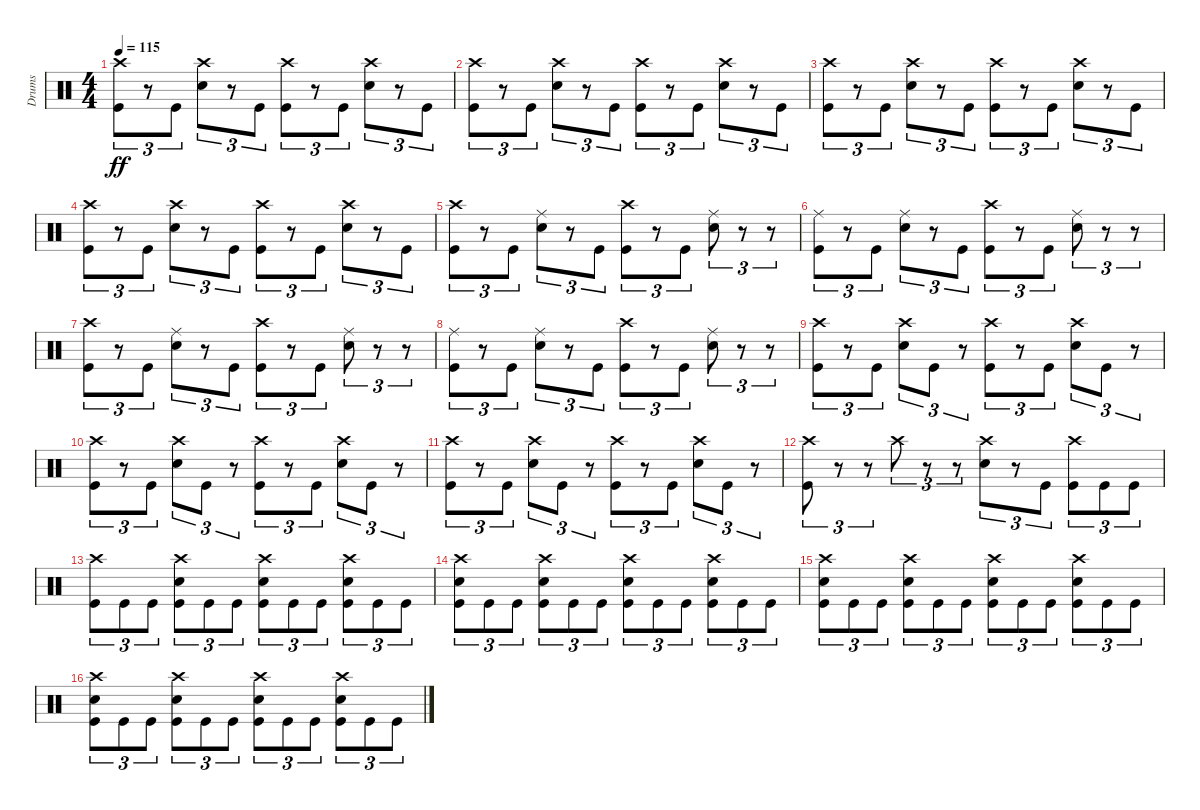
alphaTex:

\track ("Drums" "Drums") {instrument percussion}
\staff {score}
\articulation defaults
\ts (4 4)
\tempo 115
\clef neutral
\ks c
("Crash high (hit)" "Kick (hit)").8{tu (3 2) dy ff} r.8{tu (3 2)} "Kick (hit)".8{tu (3 2)} ("Crash high (hit)" "Snare (hit) 2").8{tu (3 2)} r.8{tu (3 2)} "Kick (hit)".8{tu (3 2)} ("Crash high (hit)" "Kick (hit)").8{tu (3 2)} r.8{tu (3 2)} "Kick (hit)".8{tu (3 2)} ("Crash high (hit)" "Snare (hit) 2").8{tu (3 2)} r.8{tu (3 2)} "Kick (hit)".8{tu (3 2)} |
("Crash high (hit)" "Kick (hit)").8{tu (3 2)} r.8{tu (3 2)} "Kick (hit)".8{tu (3 2)} ("Crash high (hit)" "Snare (hit) 2").8{tu (3 2)} r.8{tu (3 2)} "Kick (hit)".8{tu (3 2)} ("Crash high (hit)" "Kick (hit)").8{tu (3 2)} r.8{tu (3 2)} "Kick (hit)".8{tu (3 2)} ("Crash high (hit)" "Snare (hit) 2").8{tu (3 2)} r.8{tu (3 2)} "Kick (hit)".8{tu (3 2)} |
("Crash high (hit)" "Kick (hit)").8{tu (3 2)} r.8{tu (3 2)} "Kick (hit)".8{tu (3 2)} ("Crash high (hit)" "Snare (hit) 2").8{tu (3 2)} r.8{tu (3 2)} "Kick (hit)".8{tu (3 2)} ("Crash high (hit)" "Kick (hit)").8{tu (3 2)} r.8{tu (3 2)} "Kick (hit)".8{tu (3 2)} ("Crash high (hit)" "Snare (hit) 2").8{tu (3 2)} r.8{tu (3 2)} "Kick (hit)".8{tu (3 2)} |
("Crash high (hit)" "Kick (hit)").8{tu (3 2)} r.8{tu (3 2)} "Kick (hit)".8{tu (3 2)} ("Crash high (hit)" "Snare (hit) 2").8{tu (3 2)} r.8{tu (3 2)} "Kick (hit)".8{tu (3 2)} ("Crash high (hit)" "Kick (hit)").8{tu (3 2)} r.8{tu (3 2)} "Kick (hit)".8{tu (3 2)} ("Crash high (hit)" "Snare (hit) 2").8{tu (3 2)} r.8{tu (3 2)} "Kick (hit)".8{tu (3 2)} |
("Crash high (hit)" "Kick (hit)").8{tu (3 2)} r.8{tu (3 2)} "Kick (hit)".8{tu (3 2)} ("Ride (middle)" "Snare (hit) 2").8{tu (3 2)} r.8{tu (3 2)} "Kick (hit)".8{tu (3 2)} ("Crash high (hit)" "Kick (hit)").8{tu (3 2)} r.8{tu (3 2)} "Kick (hit)".8{tu (3 2)} ("Ride (middle)" "Snare (hit) 2").8{tu (3 2)} r.8{tu (3 2)} r.8{tu (3 2)} |
("Ride (middle)" "Kick (hit)").8{tu (3 2)} r.8{tu (3 2)} "Kick (hit)".8{tu (3 2)} ("Ride (middle)" "Snare (hit) 2").8{tu (3 2)} r.8{tu (3 2)} "Kick (hit)".8{tu (3 2)} ("Crash high (hit)" "Kick (hit)").8{tu (3 2)} r.8{tu (3 2)} "Kick (hit)".8{tu (3 2)} ("Ride (middle)" "Snare (hit) 2").8{tu (3 2)} r.8{tu (3 2)} r.8{tu (3 2)} |
("Crash high (hit)" "Kick (hit)").8{tu (3 2)} r.8{tu (3 2)} "Kick (hit)".8{tu (3 2)} ("Ride (middle)" "Snare (hit) 2").8{tu (3 2)} r.8{tu (3 2)} "Kick (hit)".8{tu (3 2)} ("Crash high (hit)" "Kick (hit)").8{tu (3 2)} r.8{tu (3 2)} "Kick (hit)".8{tu (3 2)} ("Ride (middle)" "Snare (hit) 2").8{tu (3 2)} r.8{tu (3 2)} r.8{tu (3 2)} |
("Ride (middle)" "Kick (hit)").8{tu (3 2)} r.8{tu (3 2)} "Kick (hit)".8{tu (3 2)} ("Ride (middle)" "Snare (hit) 2").8{tu (3 2)} r.8{tu (3 2)} "Kick (hit)".8{tu (3 2)} ("Crash high (hit)" "Kick (hit)").8{tu (3 2)} r.8{tu (3 2)} "Kick (hit)".8{tu (3 2)} ("Ride (middle)" "Snare (hit) 2").8{tu (3 2)} r.8{tu (3 2)} r.8{tu (3 2)} |
("Crash high (hit)" "Kick (hit)").8{tu (3 2)} r.8{tu (3 2)} "Kick (hit)".8{tu (3 2)} ("Crash high (hit)" "Snare (hit) 2").8{tu (3 2)} "Kick (hit)".8{tu (3 2)} r.8{tu (3 2)} ("Crash high (hit)" "Kick (hit)").8{tu (3 2)} r.8{tu (3 2)} "Kick (hit)".8{tu (3 2)} ("Crash high (hit)" "Snare (hit) 2").8{tu (3 2)} "Kick (hit)".8{tu (3 2)} r.8{tu (3 2)} |
("Crash high (hit)" "Kick (hit)").8{tu (3 2)} r.8{tu (3 2)} "Kick (hit)".8{tu (3 2)} ("Crash high (hit)" "Snare (hit) 2").8{tu (3 2)} "Kick (hit)".8{tu (3 2)} r.8{tu (3 2)} ("Crash high (hit)" "Kick (hit)").8{tu (3 2)} r.8{tu (3 2)} "Kick (hit)".8{tu (3 2)} ("Crash high (hit)" "Snare (hit) 2").8{tu (3 2)} "Kick (hit)".8{tu (3 2)} r.8{tu (3 2)} |
("Crash high (hit)" "Kick (hit)").8{tu (3 2)} r.8{tu (3 2)} "Kick (hit)".8{tu (3 2)} ("Crash high (hit)" "Snare (hit) 2").8{tu (3 2)} "Kick (hit)".8{tu (3 2)} r.8{tu (3 2)} ("Crash high (hit)" "Kick (hit)").8{tu (3 2)} r.8{tu (3 2)} "Kick (hit)".8{tu (3 2)} ("Crash high (hit)" "Snare (hit) 2").8{tu (3 2)} "Kick (hit)".8{tu (3 2)} r.8{tu (3 2)} |
("Crash high (hit)" "Kick (hit)").8{tu (3 2)} r.8{tu (3 2)} r.8{tu (3 2)} "Crash high (hit)".8{tu (3 2)} r.8{tu (3 2)} r.8{tu (3 2)} ("Crash high (hit)" "Snare (hit) 2").8{tu (3 2)} r.8{tu (3 2)} "Kick (hit)".8{tu (3 2)} ("Crash high (hit)" "Kick (hit)").8{tu (3 2)} "Kick (hit)".8{tu (3 2)} "Kick (hit)".8{tu (3 2)} |
("Crash high (hit)" "Kick (hit)").8{tu (3 2)} "Kick (hit)".8{tu (3 2)} "Kick (hit)".8{tu (3 2)} ("Crash high (hit)" "Snare (hit) 2" "Kick (hit)").8{tu (3 2)} "Kick (hit)".8{tu (3 2)} "Kick (hit)".8{tu (3 2)} ("Crash high (hit)" "Snare (hit) 2" "Kick (hit)").8{tu (3 2)} "Kick (hit)".8{tu (3 2)} "Kick (hit)".8{tu (3 2)} ("Crash high (hit)" "Snare (hit) 2" "Kick (hit)").8{tu (3 2)} "Kick (hit)".8{tu (3 2)} "Kick (hit)".8{tu (3 2)} |
("Crash high (hit)" "Snare (hit) 2" "Kick (hit)").8{tu (3 2)} "Kick (hit)".8{tu (3 2)} "Kick (hit)".8{tu (3 2)} ("Crash high (hit)" "Snare (hit) 2" "Kick (hit)").8{tu (3 2)} "Kick (hit)".8{tu (3 2)} "Kick (hit)".8{tu (3 2)} ("Crash high (hit)" "Snare (hit) 2" "Kick (hit)").8{tu (3 2)} "Kick (hit)".8{tu (3 2)} "Kick (hit)".8{tu (3 2)} ("Crash high (hit)" "Snare (hit) 2" "Kick (hit)").8{tu (3 2)} "Kick (hit)".8{tu (3 2)} "Kick (hit)".8{tu (3 2)} |
("Crash high (hit)" "Snare (hit) 2" "Kick (hit)").8{tu (3 2)} "Kick (hit)".8{tu (3 2)} "Kick (hit)".8{tu (3 2)} ("Crash high (hit)" "Snare (hit) 2" "Kick (hit)").8{tu (3 2)} "Kick (hit)".8{tu (3 2)} "Kick (hit)".8{tu (3 2)} ("Crash high (hit)" "Snare (hit) 2" "Kick (hit)").8{tu (3 2)} "Kick (hit)".8{tu (3 2)} "Kick (hit)".8{tu (3 2)} ("Crash high (hit)" "Snare (hit) 2" "Kick (hit)").8{tu (3 2)} "Kick (hit)".8{tu (3 2)} "Kick (hit)".8{tu (3 2)} |
("Crash high (hit)" "Snare (hit) 2" "Kick (hit)").8{tu (3 2)} "Kick (hit)".8{tu (3 2)} "Kick (hit)".8{tu (3 2)} ("Crash high (hit)" "Snare (hit) 2" "Kick (hit)").8{tu (3 2)} "Kick (hit)".8{tu (3 2)} "Kick (hit)".8{tu (3 2)} ("Crash high (hit)" "Snare (hit) 2" "Kick (hit)").8{tu (3 2)} "Kick (hit)".8{tu (3 2)} "Kick (hit)".8{tu (3 2)} ("Crash high (hit)" "Snare (hit) 2" "Kick (hit)").8{tu (3 2)} "Kick (hit)".8{tu (3 2)} "Kick (hit)".8{tu (3 2)}
